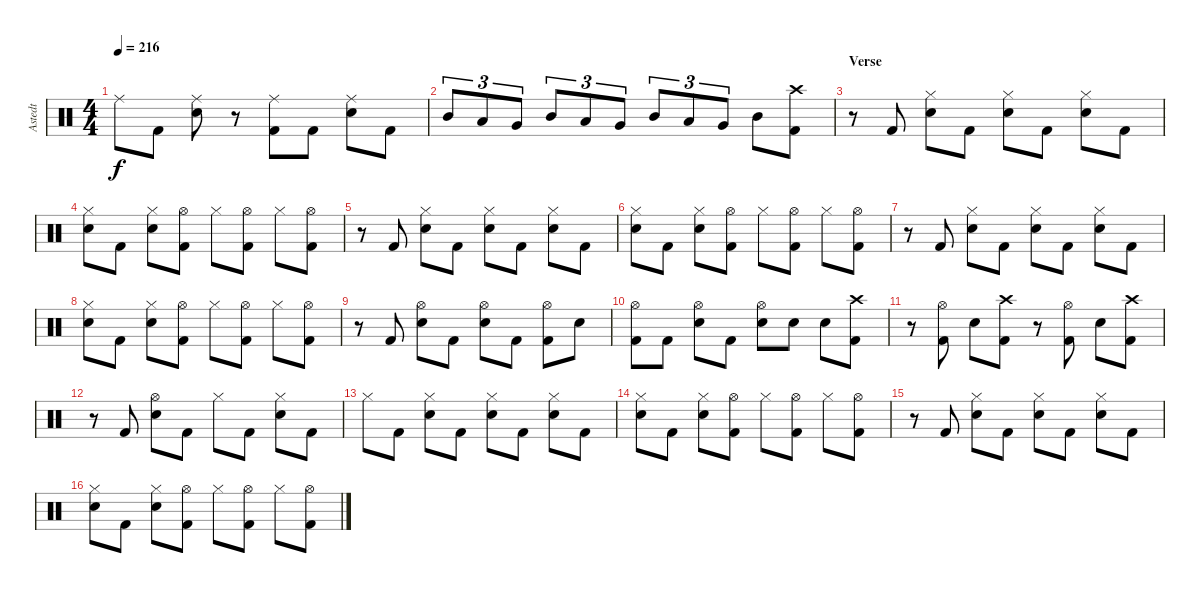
\track ("Astedt" "Astedt") {instrument percussion}
\staff {score}
\articulation defaults
\ts (4 4)
\tempo 216
\clef neutral
\ks c "Ride (middle)".8{dy f} "Kick (hit) 2".8
("Ride (middle)" "Snare (hit) 2").8 r.8 ("Ride (middle)" "Kick (hit) 2").8 "Kick (hit) 2".8 ("Ride (middle)" "Snare (hit) 2").8 "Kick (hit) 2".8 |
"Mid Tom (hit)".8{tu (3 2)} "Low Tom (hit)".8{tu (3 2)} "Very Low Tom (hit)".8{tu (3 2)} "Mid Tom (hit)".8{tu (3 2)} "Low Tom (hit)".8{tu (3 2)} "Very Low Tom (hit)".8{tu (3 2)} "Mid Tom (hit)".8{tu (3 2)} "Low Tom (hit)".8{tu (3 2)} "Very Low Tom (hit)".8{tu (3 2)} "Mid Tom (hit)".8 ("Crash high (hit)" "Kick (hit) 2").8 |
\section ("" "Verse")
r.8 "Kick (hit) 2".8 ("Hi-Hat (closed)" "Snare (hit) 2").8 "Kick (hit) 2".8 ("Hi-Hat (closed)" "Snare (hit) 2").8 "Kick (hit) 2".8 ("Hi-Hat (closed)" "Snare (hit) 2").8 "Kick (hit) 2".8 |
("Hi-Hat (closed)" "Snare (hit) 2").8 "Kick (hit) 2".8 ("Hi-Hat (closed)" "Snare (hit) 2").8 ("Hi-Hat (open)" "Kick (hit) 2").8 "Hi-Hat (closed)".8 ("Hi-Hat (open)" "Kick (hit) 2").8 "Hi-Hat (closed)".8 ("Hi-Hat (open)" "Kick (hit) 2").8 |
r.8 "Kick (hit) 2".8 ("Hi-Hat (closed)" "Snare (hit) 2").8 "Kick (hit) 2".8 ("Hi-Hat (closed)" "Snare (hit) 2").8 "Kick (hit) 2".8 ("Hi-Hat (closed)" "Snare (hit) 2").8 "Kick (hit) 2".8 |
("Hi-Hat (closed)" "Snare (hit) 2").8 "Kick (hit) 2".8 ("Hi-Hat (closed)" "Snare (hit) 2").8 ("Hi-Hat (open)" "Kick (hit) 2").8 "Hi-Hat (closed)".8 ("Hi-Hat (open)" "Kick (hit) 2").8 "Hi-Hat (closed)".8 ("Hi-Hat (open)" "Kick (hit) 2").8 |
r.8 "Kick (hit) 2".8 ("Hi-Hat (closed)" "Snare (hit) 2").8 "Kick (hit) 2".8 ("Hi-Hat (closed)" "Snare (hit) 2").8 "Kick (hit) 2".8 ("Hi-Hat (closed)" "Snare (hit) 2").8 "Kick (hit) 2".8 |
("Hi-Hat (closed)" "Snare (hit) 2").8 "Kick (hit) 2".8 ("Hi-Hat (closed)" "Snare (hit) 2").8 ("Hi-Hat (open)" "Kick (hit) 2").8 "Hi-Hat (closed)".8 ("Hi-Hat (open)" "Kick (hit) 2").8 "Hi-Hat (closed)".8 ("Hi-Hat (open)" "Kick (hit) 2").8 |
r.8 "Kick (hit) 2".8 ("Hi-Hat (open)" "Snare (hit) 2").8 "Kick (hit) 2".8 ("Hi-Hat (open)" "Snare (hit) 2").8 "Kick (hit) 2".8 ("Hi-Hat (open)" "Kick (hit) 2").8 "Snare (hit) 2".8 |
("Hi-Hat (open)" "Kick (hit) 2").8 "Kick (hit) 2".8 ("Hi-Hat (open)" "Snare (hit) 2").8 "Kick (hit) 2".8 ("Hi-Hat (open)" "Snare (hit) 2").8 "Snare (hit) 2".8 "Snare (hit) 2".8 ("Crash high (hit)" "Kick (hit) 2").8 |
r.8 ("Hi-Hat (open)" "Kick (hit) 2").8 "Snare (hit) 2".8 ("Crash high (hit)" "Kick (hit) 2").8 r.8 ("Hi-Hat (open)" "Kick (hit) 2").8 "Snare (hit) 2".8 ("Crash high (hit)" "Kick (hit) 2").8 |
r.8 "Kick (hit) 2".8 ("Hi-Hat (open)" "Snare (hit) 2").8 "Kick (hit) 2".8 "Hi-Hat (closed)".8 "Kick (hit) 2".8 ("Hi-Hat (closed)" "Snare (hit) 2").8 "Kick (hit) 2".8 |
"Hi-Hat (closed)".8 "Kick (hit) 2".8 ("Hi-Hat (closed)" "Snare (hit) 2").8 "Kick (hit) 2".8 ("Hi-Hat (closed)" "Snare (hit) 2").8 "Kick (hit) 2".8 ("Hi-Hat (closed)" "Snare (hit) 2").8 "Kick (hit) 2".8 |
("Hi-Hat (closed)" "Snare (hit) 2").8 "Kick (hit) 2".8 ("Hi-Hat (closed)" "Snare (hit) 2").8 ("Hi-Hat (open)" "Kick (hit) 2").8 "Hi-Hat (closed)".8 ("Hi-Hat (open)" "Kick (hit) 2").8 "Hi-Hat (closed)".8 ("Hi-Hat (open)" "Kick (hit) 2").8 |
r.8 "Kick (hit) 2".8 ("Hi-Hat (closed)" "Snare (hit) 2").8 "Kick (hit) 2".8 ("Hi-Hat (closed)" "Snare (hit) 2").8 "Kick (hit) 2".8 ("Hi-Hat (closed)" "Snare (hit) 2").8 "Kick (hit) 2".8 |
("Hi-Hat (closed)" "Snare (hit) 2").8 "Kick (hit) 2".8 ("Hi-Hat (closed)" "Snare (hit) 2").8 ("Hi-Hat (open)" "Kick (hit) 2").8 "Hi-Hat (closed)".8 ("Hi-Hat (open)" "Kick (hit) 2").8 "Hi-Hat (closed)".8 ("Hi-Hat (open)" "Kick (hit) 2").8
